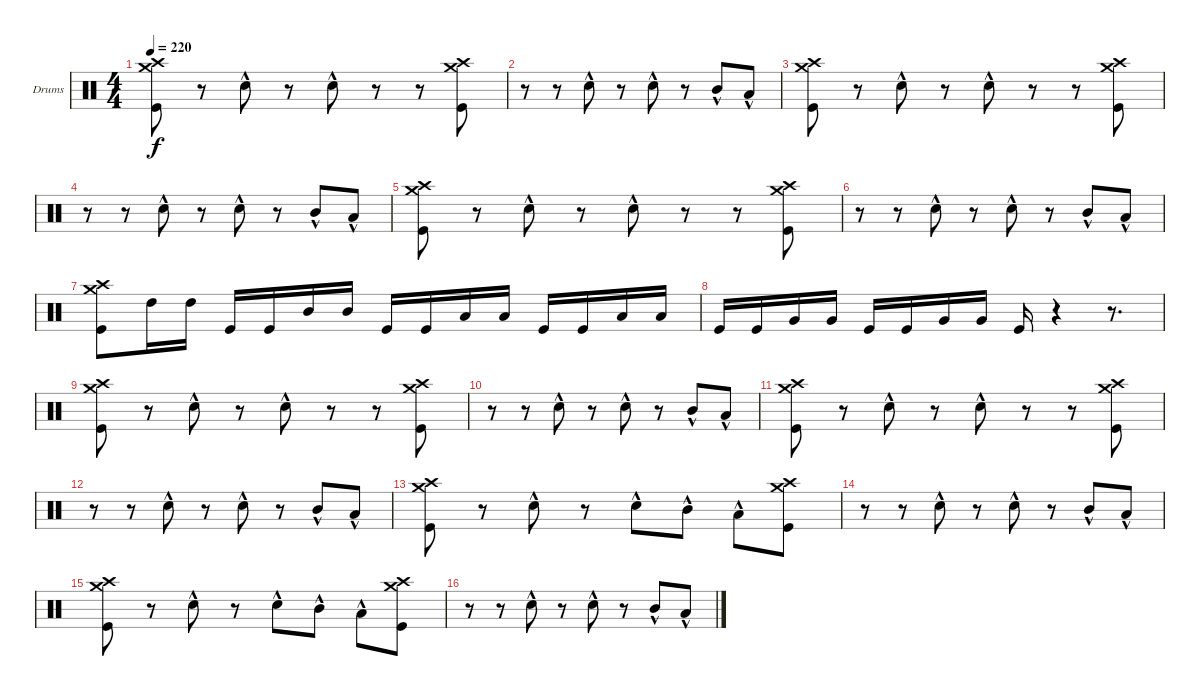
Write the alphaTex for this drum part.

\defaultSystemsLayout 4
\bracketExtendMode groupsimilarinstruments
\firstSystemTrackNameOrientation horizontal
\otherSystemsTrackNameOrientation horizontal
\track ("Drumkit" "Drums") {instrument percussion}
\staff {score}
\articulation defaults
\ts (4 4)
\tempo 220
\clef neutral
\ks c
("Kick (hit)" "Crash medium (hit)" "Crash high (hit)").8{dy f} r.8 "Snare (hit) 2"{hac}.8 r.8 "Snare (hit) 2"{hac}.8 r.8 r.8 ("Kick (hit)" "Crash medium (hit)" "Crash high (hit)").8 |
r.8 r.8 "Snare (hit) 2"{hac}.8 r.8 "Snare (hit) 2"{hac}.8 r.8 "Mid Tom (hit)"{hac}.8 "Low Tom (hit)"{hac}.8 |
("Kick (hit)" "Crash medium (hit)" "Crash high (hit)").8 r.8 "Snare (hit) 2"{hac}.8 r.8 "Snare (hit) 2"{hac}.8 r.8 r.8 ("Kick (hit)" "Crash medium (hit)" "Crash high (hit)").8 |
r.8 r.8 "Snare (hit) 2"{hac}.8 r.8 "Snare (hit) 2"{hac}.8 r.8 "Mid Tom (hit)"{hac}.8 "Low Tom (hit)"{hac}.8 |
("Kick (hit)" "Crash medium (hit)" "Crash high (hit)").8 r.8 "Snare (hit) 2"{hac}.8 r.8 "Snare (hit) 2"{hac}.8 r.8 r.8 ("Kick (hit)" "Crash medium (hit)" "Crash high (hit)").8 |
r.8 r.8 "Snare (hit) 2"{hac}.8 r.8 "Snare (hit) 2"{hac}.8 r.8 "Mid Tom (hit)"{hac}.8 "Low Tom (hit)"{hac}.8 |
("Kick (hit)" "Crash medium (hit)" "Crash high (hit)").8 "High Tom (hit)".16 "High Tom (hit)".16 "Kick (hit)".16 "Kick (hit)".16 "Mid Tom (hit)".16 "Mid Tom (hit)".16 "Kick (hit)".16 "Kick (hit)".16 "Low Tom (hit)".16 "Low Tom (hit)".16 "Kick (hit)".16 "Kick (hit)".16 "Low Tom (hit)".16 "Low Tom (hit)".16 |
"Kick (hit)".16 "Kick (hit)".16 "Very Low Tom (hit)".16 "Very Low Tom (hit)".16 "Kick (hit)".16 "Kick (hit)".16 "Very Low Tom (hit)".16 "Very Low Tom (hit)".16 "Kick (hit)".16 r.4 r.8{d} |
("Kick (hit)" "Crash medium (hit)" "Crash high (hit)").8 r.8 "Snare (hit) 2"{hac}.8 r.8 "Snare (hit) 2"{hac}.8 r.8 r.8 ("Kick (hit)" "Crash medium (hit)" "Crash high (hit)").8 |
r.8 r.8 "Snare (hit) 2"{hac}.8 r.8 "Snare (hit) 2"{hac}.8 r.8 "Mid Tom (hit)"{hac}.8 "Low Tom (hit)"{hac}.8 |
("Kick (hit)" "Crash medium (hit)" "Crash high (hit)").8 r.8 "Snare (hit) 2"{hac}.8 r.8 "Snare (hit) 2"{hac}.8 r.8 r.8 ("Kick (hit)" "Crash medium (hit)" "Crash high (hit)").8 |
r.8 r.8 "Snare (hit) 2"{hac}.8 r.8 "Snare (hit) 2"{hac}.8 r.8 "Mid Tom (hit)"{hac}.8 "Low Tom (hit)"{hac}.8 |
("Kick (hit)" "Crash medium (hit)" "Crash high (hit)").8 r.8 "Snare (hit) 2"{hac}.8 r.8 "Snare (hit) 2"{hac}.8 "Mid Tom (hit)"{hac}.8 "Low Tom (hit)"{hac}.8 ("Kick (hit)" "Crash medium (hit)" "Crash high (hit)").8 |
r.8 r.8 "Snare (hit) 2"{hac}.8 r.8 "Snare (hit) 2"{hac}.8 r.8 "Mid Tom (hit)"{hac}.8 "Low Tom (hit)"{hac}.8 |
("Kick (hit)" "Crash medium (hit)" "Crash high (hit)").8 r.8 "Snare (hit) 2"{hac}.8 r.8 "Snare (hit) 2"{hac}.8 "Mid Tom (hit)"{hac}.8 "Low Tom (hit)"{hac}.8 ("Kick (hit)" "Crash medium (hit)" "Crash high (hit)").8 |
r.8 r.8 "Snare (hit) 2"{hac}.8 r.8 "Snare (hit) 2"{hac}.8 r.8 "Mid Tom (hit)"{hac}.8 "Low Tom (hit)"{hac}.8
